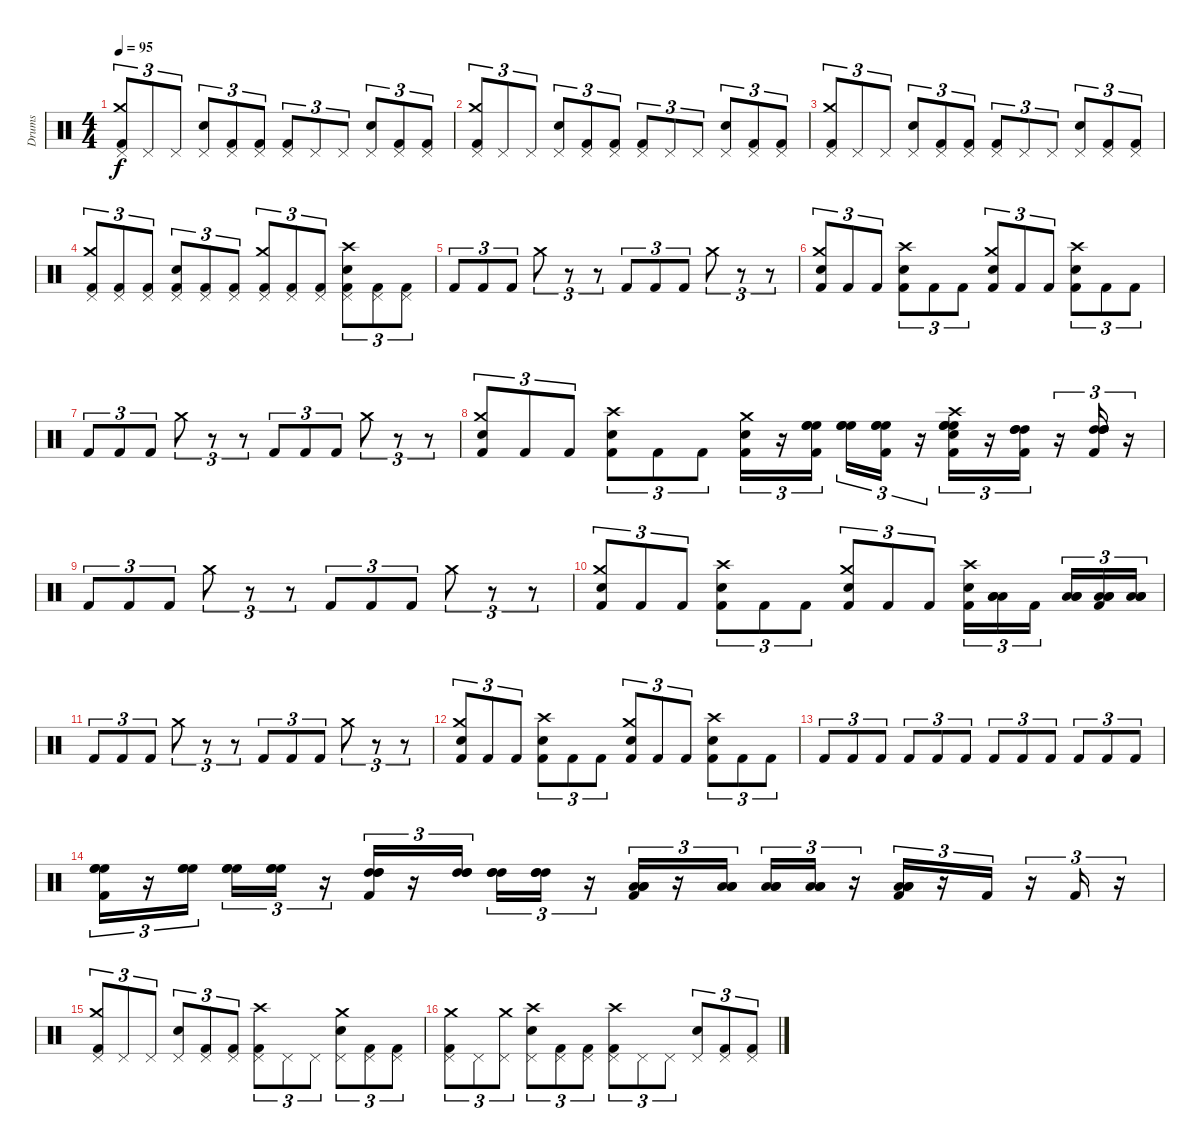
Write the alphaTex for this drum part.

\track ("Drums" "Drums") {instrument percussion}
\staff {score}
\articulation defaults
\ts (4 4)
\tempo 95
\clef neutral
\ks c
("Kick (hit) 2" "Crash medium (hit)" "Pedal Hi-Hat (hit)").8{tu (3 2) dy f} "Pedal Hi-Hat (hit)".8{tu (3 2)} "Pedal Hi-Hat (hit)".8{tu (3 2)} ("Snare (hit) 2" "Pedal Hi-Hat (hit)").8{tu (3 2)} ("Kick (hit) 2" "Pedal Hi-Hat (hit)").8{tu (3 2)} ("Kick (hit) 2" "Pedal Hi-Hat (hit)").8{tu (3 2)} ("Kick (hit) 2" "Pedal Hi-Hat (hit)").8{tu (3 2)} "Pedal Hi-Hat (hit)".8{tu (3 2)} "Pedal Hi-Hat (hit)".8{tu (3 2)} ("Snare (hit) 2" "Pedal Hi-Hat (hit)").8{tu (3 2)} ("Kick (hit) 2" "Pedal Hi-Hat (hit)").8{tu (3 2)} ("Kick (hit) 2" "Pedal Hi-Hat (hit)").8{tu (3 2)} |
("Kick (hit) 2" "Crash medium (hit)" "Pedal Hi-Hat (hit)").8{tu (3 2)} "Pedal Hi-Hat (hit)".8{tu (3 2)} "Pedal Hi-Hat (hit)".8{tu (3 2)} ("Snare (hit) 2" "Pedal Hi-Hat (hit)").8{tu (3 2)} ("Kick (hit) 2" "Pedal Hi-Hat (hit)").8{tu (3 2)} ("Kick (hit) 2" "Pedal Hi-Hat (hit)").8{tu (3 2)} ("Kick (hit) 2" "Pedal Hi-Hat (hit)").8{tu (3 2)} "Pedal Hi-Hat (hit)".8{tu (3 2)} "Pedal Hi-Hat (hit)".8{tu (3 2)} ("Snare (hit) 2" "Pedal Hi-Hat (hit)").8{tu (3 2)} ("Kick (hit) 2" "Pedal Hi-Hat (hit)").8{tu (3 2)} ("Kick (hit) 2" "Pedal Hi-Hat (hit)").8{tu (3 2)} |
("Kick (hit) 2" "Crash medium (hit)" "Pedal Hi-Hat (hit)").8{tu (3 2)} "Pedal Hi-Hat (hit)".8{tu (3 2)} "Pedal Hi-Hat (hit)".8{tu (3 2)} ("Snare (hit) 2" "Pedal Hi-Hat (hit)").8{tu (3 2)} ("Kick (hit) 2" "Pedal Hi-Hat (hit)").8{tu (3 2)} ("Kick (hit) 2" "Pedal Hi-Hat (hit)").8{tu (3 2)} ("Kick (hit) 2" "Pedal Hi-Hat (hit)").8{tu (3 2)} "Pedal Hi-Hat (hit)".8{tu (3 2)} "Pedal Hi-Hat (hit)".8{tu (3 2)} ("Snare (hit) 2" "Pedal Hi-Hat (hit)").8{tu (3 2)} ("Kick (hit) 2" "Pedal Hi-Hat (hit)").8{tu (3 2)} ("Kick (hit) 2" "Pedal Hi-Hat (hit)").8{tu (3 2)} |
("Kick (hit) 2" "Crash medium (hit)" "Pedal Hi-Hat (hit)").8{tu (3 2)} ("Kick (hit) 2" "Pedal Hi-Hat (hit)").8{tu (3 2)} ("Kick (hit) 2" "Pedal Hi-Hat (hit)").8{tu (3 2)} ("Kick (hit) 2" "Snare (hit) 2" "Pedal Hi-Hat (hit)").8{tu (3 2)} ("Kick (hit) 2" "Pedal Hi-Hat (hit)").8{tu (3 2)} ("Kick (hit) 2" "Pedal Hi-Hat (hit)").8{tu (3 2)} ("Kick (hit) 2" "Crash medium (hit)" "Pedal Hi-Hat (hit)").8{tu (3 2)} ("Kick (hit) 2" "Pedal Hi-Hat (hit)").8{tu (3 2)} ("Kick (hit) 2" "Pedal Hi-Hat (hit)").8{tu (3 2)} ("Kick (hit) 2" "Crash high (hit)" "Snare (hit) 2" "Pedal Hi-Hat (hit)").8{tu (3 2)} ("Kick (hit) 2" "Pedal Hi-Hat (hit)").8{tu (3 2)} ("Kick (hit) 2" "Pedal Hi-Hat (hit)").8{tu (3 2)} |
"Kick (hit) 2".8{tu (3 2)} "Kick (hit) 2".8{tu (3 2)} "Kick (hit) 2".8{tu (3 2)} "Crash medium (hit)".8{tu (3 2)} r.8{tu (3 2)} r.8{tu (3 2)} "Kick (hit) 2".8{tu (3 2)} "Kick (hit) 2".8{tu (3 2)} "Kick (hit) 2".8{tu (3 2)} "Crash medium (hit)".8{tu (3 2)} r.8{tu (3 2)} r.8{tu (3 2)} |
("Kick (hit) 2" "Crash medium (hit)" "Snare (hit) 2").8{tu (3 2)} "Kick (hit) 2".8{tu (3 2)} "Kick (hit) 2".8{tu (3 2)} ("Kick (hit) 2" "Crash high (hit)" "Snare (hit) 2").8{tu (3 2)} "Kick (hit) 2".8{tu (3 2)} "Kick (hit) 2".8{tu (3 2)} ("Kick (hit) 2" "Crash medium (hit)" "Snare (hit) 2").8{tu (3 2)} "Kick (hit) 2".8{tu (3 2)} "Kick (hit) 2".8{tu (3 2)} ("Kick (hit) 2" "Crash high (hit)" "Snare (hit) 2").8{tu (3 2)} "Kick (hit) 2".8{tu (3 2)} "Kick (hit) 2".8{tu (3 2)} |
"Kick (hit) 2".8{tu (3 2)} "Kick (hit) 2".8{tu (3 2)} "Kick (hit) 2".8{tu (3 2)} "Crash medium (hit)".8{tu (3 2)} r.8{tu (3 2)} r.8{tu (3 2)} "Kick (hit) 2".8{tu (3 2)} "Kick (hit) 2".8{tu (3 2)} "Kick (hit) 2".8{tu (3 2)} "Crash medium (hit)".8{tu (3 2)} r.8{tu (3 2)} r.8{tu (3 2)} |
("Kick (hit) 2" "Crash medium (hit)" "Snare (hit) 2").8{tu (3 2)} "Kick (hit) 2".8{tu (3 2)} "Kick (hit) 2".8{tu (3 2)} ("Kick (hit) 2" "Crash high (hit)" "Snare (hit) 2").8{tu (3 2)} "Kick (hit) 2".8{tu (3 2)} "Kick (hit) 2".8{tu (3 2)} ("Kick (hit) 2" "Crash medium (hit)" "Snare (hit) 2").16{tu (3 2)} r.16{tu (3 2)} ("Kick (hit) 2" "High Floor Tom (hit)" "High Floor Tom (hit)" "High Floor Tom (hit)").16{tu (3 2)} ("High Floor Tom (hit)" "High Floor Tom (hit)" "High Floor Tom (hit)").16{tu (3 2)} ("Kick (hit) 2" "High Floor Tom (hit)" "High Floor Tom (hit)" "High Floor Tom (hit)").16{tu (3 2)} r.16{tu (3 2)} ("Kick (hit) 2" "Crash high (hit)" "Snare (hit) 2" "High Floor Tom (hit)" "High Floor Tom (hit)" "High Floor Tom (hit)").16{tu (3 2)} r.16{tu (3 2)} ("Kick (hit) 2" "High Tom (hit)" "High Tom (hit)" "High Tom (hit)").16{tu (3 2)} r.16{tu (3 2)} ("Kick (hit) 2" "High Tom (hit)" "High Tom (hit)" "High Tom (hit)").16{tu (3 2)} r.16{tu (3 2)} |
"Kick (hit) 2".8{tu (3 2)} "Kick (hit) 2".8{tu (3 2)} "Kick (hit) 2".8{tu (3 2)} "Crash medium (hit)".8{tu (3 2)} r.8{tu (3 2)} r.8{tu (3 2)} "Kick (hit) 2".8{tu (3 2)} "Kick (hit) 2".8{tu (3 2)} "Kick (hit) 2".8{tu (3 2)} "Crash medium (hit)".8{tu (3 2)} r.8{tu (3 2)} r.8{tu (3 2)} |
("Kick (hit) 2" "Crash medium (hit)" "Snare (hit) 2").8{tu (3 2)} "Kick (hit) 2".8{tu (3 2)} "Kick (hit) 2".8{tu (3 2)} ("Kick (hit) 2" "Crash high (hit)" "Snare (hit) 2").8{tu (3 2)} "Kick (hit) 2".8{tu (3 2)} "Kick (hit) 2".8{tu (3 2)} ("Kick (hit) 2" "Crash medium (hit)" "Snare (hit) 2").8{tu (3 2)} "Kick (hit) 2".8{tu (3 2)} "Kick (hit) 2".8{tu (3 2)} ("Kick (hit) 2" "Crash high (hit)" "Snare (hit) 2").16{tu (3 2)} ("Low Tom (hit)" "Low Tom (hit)" "Low Tom (hit)").16{tu (3 2)} "Kick (hit) 2".16{tu (3 2)} ("Low Tom (hit)" "Low Tom (hit)" "Low Tom (hit)").16{tu (3 2)} ("Kick (hit) 2" "Low Tom (hit)" "Low Tom (hit)" "Low Tom (hit)").16{tu (3 2)} ("Low Floor Tom (hit)" "Low Floor Tom (hit)" "Low Floor Tom (hit)").16{tu (3 2)} |
"Kick (hit) 2".8{tu (3 2)} "Kick (hit) 2".8{tu (3 2)} "Kick (hit) 2".8{tu (3 2)} "Crash medium (hit)".8{tu (3 2)} r.8{tu (3 2)} r.8{tu (3 2)} "Kick (hit) 2".8{tu (3 2)} "Kick (hit) 2".8{tu (3 2)} "Kick (hit) 2".8{tu (3 2)} "Crash medium (hit)".8{tu (3 2)} r.8{tu (3 2)} r.8{tu (3 2)} |
("Kick (hit) 2" "Crash medium (hit)" "Snare (hit) 2").8{tu (3 2)} "Kick (hit) 2".8{tu (3 2)} "Kick (hit) 2".8{tu (3 2)} ("Kick (hit) 2" "Crash high (hit)" "Snare (hit) 2").8{tu (3 2)} "Kick (hit) 2".8{tu (3 2)} "Kick (hit) 2".8{tu (3 2)} ("Kick (hit) 2" "Crash medium (hit)" "Snare (hit) 2").8{tu (3 2)} "Kick (hit) 2".8{tu (3 2)} "Kick (hit) 2".8{tu (3 2)} ("Kick (hit) 2" "Crash high (hit)" "Snare (hit) 2").8{tu (3 2)} "Kick (hit) 2".8{tu (3 2)} "Kick (hit) 2".8{tu (3 2)} |
"Kick (hit) 2".8{tu (3 2)} "Kick (hit) 2".8{tu (3 2)} "Kick (hit) 2".8{tu (3 2)} "Kick (hit) 2".8{tu (3 2)} "Kick (hit) 2".8{tu (3 2)} "Kick (hit) 2".8{tu (3 2)} "Kick (hit) 2".8{tu (3 2)} "Kick (hit) 2".8{tu (3 2)} "Kick (hit) 2".8{tu (3 2)} "Kick (hit) 2".8{tu (3 2)} "Kick (hit) 2".8{tu (3 2)} "Kick (hit) 2".8{tu (3 2)} |
("Kick (hit) 2" "High Floor Tom (hit)" "High Floor Tom (hit)" "High Floor Tom (hit)").16{tu (3 2)} r.16{tu (3 2)} ("High Floor Tom (hit)" "High Floor Tom (hit)" "High Floor Tom (hit)").16{tu (3 2)} ("High Floor Tom (hit)" "High Floor Tom (hit)" "High Floor Tom (hit)").16{tu (3 2)} ("High Floor Tom (hit)" "High Floor Tom (hit)" "High Floor Tom (hit)").16{tu (3 2)} r.16{tu (3 2)} ("Kick (hit) 2" "High Tom (hit)" "High Tom (hit)" "High Tom (hit)").16{tu (3 2)} r.16{tu (3 2)} ("High Tom (hit)" "High Tom (hit)" "High Tom (hit)").16{tu (3 2)} ("High Tom (hit)" "High Tom (hit)" "High Tom (hit)").16{tu (3 2)} ("High Tom (hit)" "High Tom (hit)" "High Tom (hit)").16{tu (3 2)} r.16{tu (3 2)} ("Kick (hit) 2" "Low Tom (hit)" "Low Tom (hit)" "Low Tom (hit)").16{tu (3 2)} r.16{tu (3 2)} ("Low Tom (hit)" "Low Tom (hit)" "Low Tom (hit)").16{tu (3 2)} ("Low Tom (hit)" "Low Tom (hit)" "Low Tom (hit)").16{tu (3 2)} ("Low Tom (hit)" "Low Tom (hit)" "Low Tom (hit)").16{tu (3 2)} r.16{tu (3 2)} ("Kick (hit) 2" "Low Floor Tom (hit)" "Low Floor Tom (hit)" "Low Floor Tom (hit)").16{tu (3 2)} r.16{tu (3 2)} "Kick (hit) 2".16{tu (3 2)} r.16{tu (3 2)} "Kick (hit) 2".16{tu (3 2)} r.16{tu (3 2)} |
("Kick (hit) 2" "Crash medium (hit)" "Pedal Hi-Hat (hit)").8{tu (3 2)} "Pedal Hi-Hat (hit)".8{tu (3 2)} "Pedal Hi-Hat (hit)".8{tu (3 2)} ("Snare (hit) 2" "Pedal Hi-Hat (hit)").8{tu (3 2)} ("Kick (hit) 2" "Pedal Hi-Hat (hit)").8{tu (3 2)} ("Kick (hit) 2" "Pedal Hi-Hat (hit)").8{tu (3 2)} ("Kick (hit) 2" "Crash high (hit)" "Pedal Hi-Hat (hit)").8{tu (3 2)} "Pedal Hi-Hat (hit)".8{tu (3 2)} "Pedal Hi-Hat (hit)".8{tu (3 2)} ("Crash medium (hit)" "Snare (hit) 2" "Pedal Hi-Hat (hit)").8{tu (3 2)} ("Kick (hit) 2" "Pedal Hi-Hat (hit)").8{tu (3 2)} ("Kick (hit) 2" "Pedal Hi-Hat (hit)").8{tu (3 2)} |
("Kick (hit) 2" "Crash medium (hit)" "Pedal Hi-Hat (hit)").8{tu (3 2)} "Pedal Hi-Hat (hit)".8{tu (3 2)} ("Crash medium (hit)" "Pedal Hi-Hat (hit)").8{tu (3 2)} ("Crash high (hit)" "Snare (hit) 2" "Pedal Hi-Hat (hit)").8{tu (3 2)} ("Kick (hit) 2" "Pedal Hi-Hat (hit)").8{tu (3 2)} ("Kick (hit) 2" "Pedal Hi-Hat (hit)").8{tu (3 2)} ("Kick (hit) 2" "Crash high (hit)" "Pedal Hi-Hat (hit)").8{tu (3 2)} "Pedal Hi-Hat (hit)".8{tu (3 2)} "Pedal Hi-Hat (hit)".8{tu (3 2)} ("Snare (hit) 2" "Pedal Hi-Hat (hit)").8{tu (3 2)} ("Kick (hit) 2" "Pedal Hi-Hat (hit)").8{tu (3 2)} ("Kick (hit) 2" "Pedal Hi-Hat (hit)").8{tu (3 2)}
